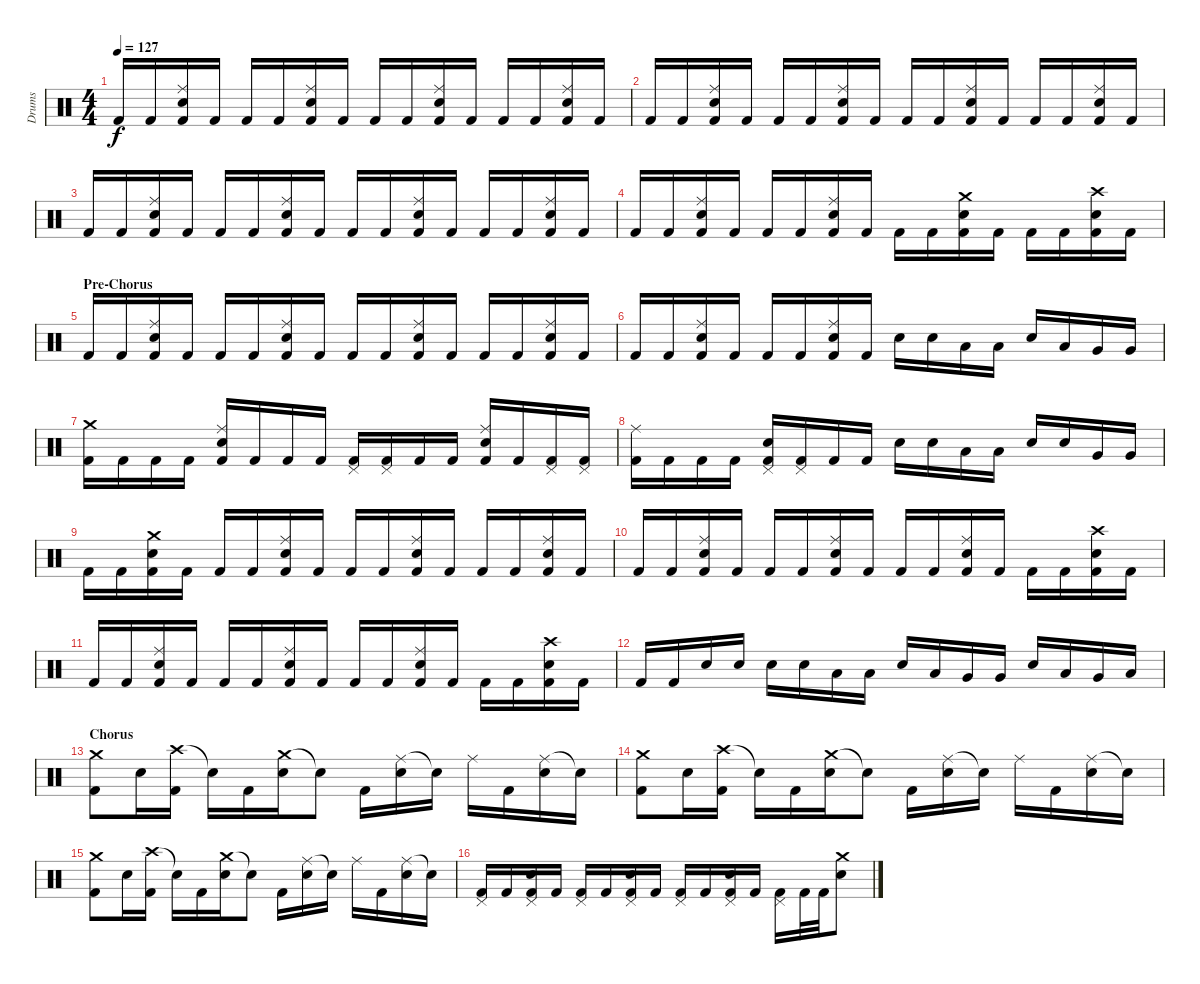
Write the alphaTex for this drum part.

\track ("Drums" "Drums") {instrument percussion}
\staff {score}
\articulation defaults
\ts (4 4)
\tempo 127
\clef neutral
\ks c "Kick (hit) 2".16{dy f} "Kick (hit) 2".16
("Ride (middle)" "Electric Snare (hit)" "Kick (hit) 2").16 "Kick (hit) 2".16 "Kick (hit) 2".16 "Kick (hit) 2".16 ("Ride (middle)" "Electric Snare (hit)" "Kick (hit) 2").16 "Kick (hit) 2".16 "Kick (hit) 2".16 "Kick (hit) 2".16 ("Ride (middle)" "Electric Snare (hit)" "Kick (hit) 2").16 "Kick (hit) 2".16 "Kick (hit) 2".16 "Kick (hit) 2".16 ("Ride (middle)" "Electric Snare (hit)" "Kick (hit) 2").16 "Kick (hit) 2".16 |
"Kick (hit) 2".16 "Kick (hit) 2".16 ("Ride (middle)" "Electric Snare (hit)" "Kick (hit) 2").16 "Kick (hit) 2".16 "Kick (hit) 2".16 "Kick (hit) 2".16 ("Ride (middle)" "Electric Snare (hit)" "Kick (hit) 2").16 "Kick (hit) 2".16 "Kick (hit) 2".16 "Kick (hit) 2".16 ("Ride (middle)" "Electric Snare (hit)" "Kick (hit) 2").16 "Kick (hit) 2".16 "Kick (hit) 2".16 "Kick (hit) 2".16 ("Ride (middle)" "Electric Snare (hit)" "Kick (hit) 2").16 "Kick (hit) 2".16 |
"Kick (hit) 2".16 "Kick (hit) 2".16 ("Ride (middle)" "Electric Snare (hit)" "Kick (hit) 2").16 "Kick (hit) 2".16 "Kick (hit) 2".16 "Kick (hit) 2".16 ("Ride (middle)" "Electric Snare (hit)" "Kick (hit) 2").16 "Kick (hit) 2".16 "Kick (hit) 2".16 "Kick (hit) 2".16 ("Ride (middle)" "Electric Snare (hit)" "Kick (hit) 2").16 "Kick (hit) 2".16 "Kick (hit) 2".16 "Kick (hit) 2".16 ("Ride (middle)" "Electric Snare (hit)" "Kick (hit) 2").16 "Kick (hit) 2".16 |
"Kick (hit) 2".16 "Kick (hit) 2".16 ("Ride (middle)" "Electric Snare (hit)" "Kick (hit) 2").16 "Kick (hit) 2".16 "Kick (hit) 2".16 "Kick (hit) 2".16 ("Ride (middle)" "Electric Snare (hit)" "Kick (hit) 2").16 "Kick (hit) 2".16 "Kick (hit) 2".16 "Kick (hit) 2".16 ("Crash medium (hit)" "Electric Snare (hit)" "Kick (hit) 2").16 "Kick (hit) 2".16 "Kick (hit) 2".16 "Kick (hit) 2".16 ("Crash high (hit)" "Electric Snare (hit)" "Kick (hit) 2").16 "Kick (hit) 2".16 |
\section ("" "Pre-Chorus")
"Kick (hit) 2".16 "Kick (hit) 2".16 ("Ride (middle)" "Electric Snare (hit)" "Kick (hit) 2").16 "Kick (hit) 2".16 "Kick (hit) 2".16 "Kick (hit) 2".16 ("Ride (middle)" "Electric Snare (hit)" "Kick (hit) 2").16 "Kick (hit) 2".16 "Kick (hit) 2".16 "Kick (hit) 2".16 ("Ride (middle)" "Electric Snare (hit)" "Kick (hit) 2").16 "Kick (hit) 2".16 "Kick (hit) 2".16 "Kick (hit) 2".16 ("Ride (middle)" "Electric Snare (hit)" "Kick (hit) 2").16 "Kick (hit) 2".16 |
"Kick (hit) 2".16 "Kick (hit) 2".16 ("Ride (middle)" "Electric Snare (hit)" "Kick (hit) 2").16 "Kick (hit) 2".16 "Kick (hit) 2".16 "Kick (hit) 2".16 ("Ride (middle)" "Electric Snare (hit)" "Kick (hit) 2").16 "Kick (hit) 2".16 "Electric Snare (hit)".16 "Electric Snare (hit)".16 "Low Tom (hit)".16 "Low Tom (hit)".16 "Electric Snare (hit)".16 "Low Tom (hit)".16 "Very Low Tom (hit)".16 "Very Low Tom (hit)".16 |
("Crash medium (hit)" "Kick (hit) 2").16 "Kick (hit) 2".16 "Kick (hit) 2".16 "Kick (hit) 2".16 ("Ride (middle)" "Electric Snare (hit)" "Kick (hit) 2").16 "Kick (hit) 2".16 "Kick (hit) 2".16 "Kick (hit) 2".16 ("Pedal Hi-Hat (hit)" "Kick (hit) 2").16 ("Pedal Hi-Hat (hit)" "Kick (hit) 2").16 "Kick (hit) 2".16 "Kick (hit) 2".16 ("Ride (middle)" "Electric Snare (hit)" "Kick (hit) 2").16 "Kick (hit) 2".16 ("Pedal Hi-Hat (hit)" "Kick (hit) 2").16 ("Pedal Hi-Hat (hit)" "Kick (hit) 2").16 |
("Ride (middle)" "Kick (hit) 2").16 "Kick (hit) 2".16 "Kick (hit) 2".16 "Kick (hit) 2".16 ("Pedal Hi-Hat (hit)" "Electric Snare (hit)" "Kick (hit) 2").16 ("Pedal Hi-Hat (hit)" "Kick (hit) 2").16 "Kick (hit) 2".16 "Kick (hit) 2".16 "Electric Snare (hit)".16 "Electric Snare (hit)".16 "Low Tom (hit)".16 "Low Tom (hit)".16 "Electric Snare (hit)".16 "Electric Snare (hit)".16 "Very Low Tom (hit)".16 "Very Low Tom (hit)".16 |
"Kick (hit) 2".16 "Kick (hit) 2".16 ("Crash medium (hit)" "Electric Snare (hit)" "Kick (hit) 2").16 "Kick (hit) 2".16 "Kick (hit) 2".16 "Kick (hit) 2".16 ("Ride (middle)" "Electric Snare (hit)" "Kick (hit) 2").16 "Kick (hit) 2".16 "Kick (hit) 2".16 "Kick (hit) 2".16 ("Ride (middle)" "Electric Snare (hit)" "Kick (hit) 2").16 "Kick (hit) 2".16 "Kick (hit) 2".16 "Kick (hit) 2".16 ("Ride (middle)" "Electric Snare (hit)" "Kick (hit) 2").16 "Kick (hit) 2".16 |
"Kick (hit) 2".16 "Kick (hit) 2".16 ("Ride (middle)" "Electric Snare (hit)" "Kick (hit) 2").16 "Kick (hit) 2".16 "Kick (hit) 2".16 "Kick (hit) 2".16 ("Ride (middle)" "Electric Snare (hit)" "Kick (hit) 2").16 "Kick (hit) 2".16 "Kick (hit) 2".16 "Kick (hit) 2".16 ("Ride (middle)" "Electric Snare (hit)" "Kick (hit) 2").16 "Kick (hit) 2".16 "Kick (hit) 2".16 "Kick (hit) 2".16 ("Crash high (hit)" "Electric Snare (hit)" "Kick (hit) 2").16 "Kick (hit) 2".16 |
"Kick (hit) 2".16 "Kick (hit) 2".16 ("Ride (middle)" "Electric Snare (hit)" "Kick (hit) 2").16 "Kick (hit) 2".16 "Kick (hit) 2".16 "Kick (hit) 2".16 ("Ride (middle)" "Electric Snare (hit)" "Kick (hit) 2").16 "Kick (hit) 2".16 "Kick (hit) 2".16 "Kick (hit) 2".16 ("Ride (middle)" "Electric Snare (hit)" "Kick (hit) 2").16 "Kick (hit) 2".16 "Kick (hit) 2".16 "Kick (hit) 2".16 ("Crash high (hit)" "Electric Snare (hit)" "Kick (hit) 2").16 "Kick (hit) 2".16 |
"Kick (hit) 2".16 "Kick (hit) 2".16 "Electric Snare (hit)".16 "Electric Snare (hit)".16 "Electric Snare (hit)".16 "Electric Snare (hit)".16 "Low Tom (hit)".16 "Low Tom (hit)".16 "Electric Snare (hit)".16 "Low Tom (hit)".16 "Very Low Tom (hit)".16 "Very Low Tom (hit)".16 "Electric Snare (hit)".16 "Low Tom (hit)".16 "Very Low Tom (hit)".16 "Low Floor Tom (hit)".16 |
\section ("" "Chorus")
("Crash medium (hit)" "Kick (hit) 2").8 "Electric Snare (hit)".16 ("Crash high (hit)" "Kick (hit) 2").16 "Snare (hit)"{t}.16 "Kick (hit) 2".16 ("Crash medium (hit)" "Electric Snare (hit)").16 "Snare (hit)"{t}.8 "Kick (hit) 2".16 ("Ride (middle)" "Electric Snare (hit)").16 "Snare (hit)"{t}.16 "Ride (middle)".16 "Kick (hit) 2".16 ("Ride (middle)" "Electric Snare (hit)").16 "Snare (hit)"{t}.16 |
("Crash medium (hit)" "Kick (hit) 2").8 "Electric Snare (hit)".16 ("Crash high (hit)" "Kick (hit) 2").16 "Snare (hit)"{t}.16 "Kick (hit) 2".16 ("Crash medium (hit)" "Electric Snare (hit)").16 "Snare (hit)"{t}.8 "Kick (hit) 2".16 ("Ride (middle)" "Electric Snare (hit)").16 "Snare (hit)"{t}.16 "Ride (middle)".16 "Kick (hit) 2".16 ("Ride (middle)" "Electric Snare (hit)").16 "Snare (hit)"{t}.16 |
("Crash medium (hit)" "Kick (hit) 2").8 "Electric Snare (hit)".16 ("Crash high (hit)" "Kick (hit) 2").16 "Snare (hit)"{t}.16 "Kick (hit) 2".16 ("Crash medium (hit)" "Electric Snare (hit)").16 "Snare (hit)"{t}.8 "Kick (hit) 2".16 ("Ride (middle)" "Electric Snare (hit)").16 "Snare (hit)"{t}.16 "Ride (middle)".16 "Kick (hit) 2".16 ("Ride (middle)" "Electric Snare (hit)").16 "Snare (hit)"{t}.16 |
("Pedal Hi-Hat (hit)" "Kick (hit) 2").16 "Kick (hit) 2".16 ("Pedal Hi-Hat (hit)" "Electric Snare (hit)" "Kick (hit) 2").16 "Kick (hit) 2".16 ("Pedal Hi-Hat (hit)" "Kick (hit) 2").16 "Kick (hit) 2".16 ("Pedal Hi-Hat (hit)" "Electric Snare (hit)" "Kick (hit) 2").16 "Kick (hit) 2".16 ("Pedal Hi-Hat (hit)" "Kick (hit) 2").16 "Kick (hit) 2".16 ("Pedal Hi-Hat (hit)" "Electric Snare (hit)" "Kick (hit) 2").16 "Kick (hit) 2".16 ("Pedal Hi-Hat (hit)" "Kick (hit) 2").16 "Kick (hit) 2".32 "Kick (hit) 2".32 ("Crash medium (hit)" "Electric Snare (hit)").8
